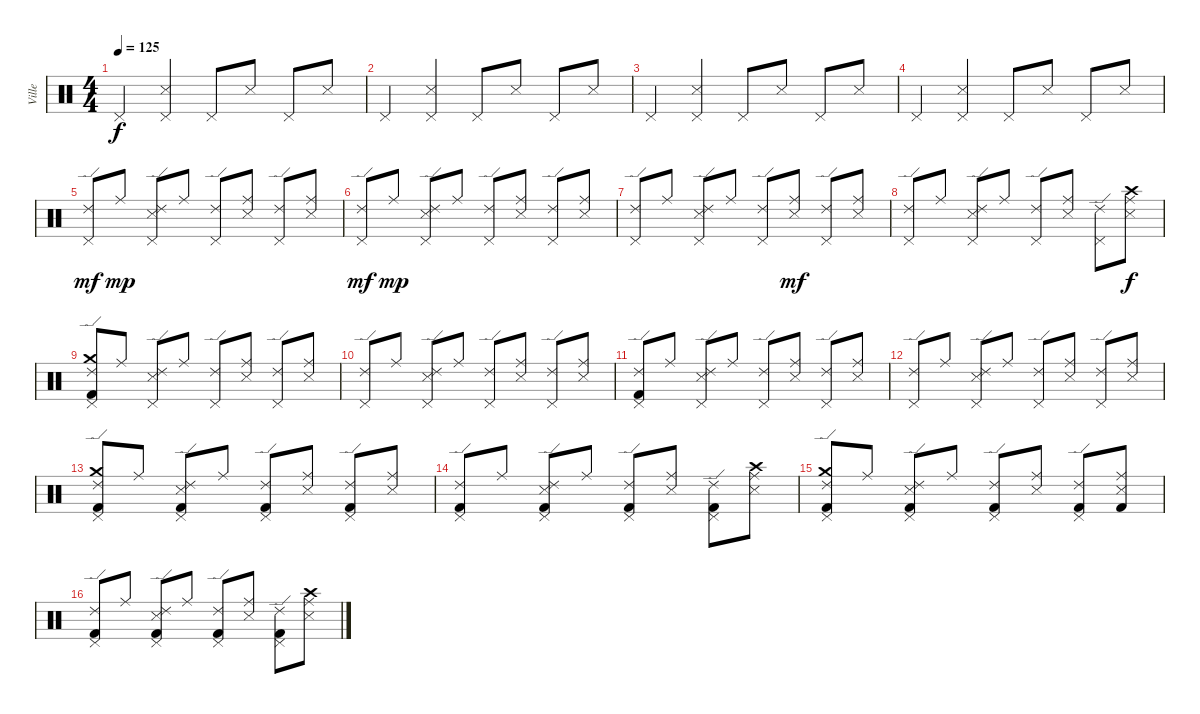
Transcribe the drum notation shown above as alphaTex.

\track ("Ville" "Ville") {instrument percussion}
\staff {score}
\articulation defaults
\ts (4 4)
\tempo 125
\clef neutral
\ks c "Pedal Hi-Hat (hit)".4{dy f}
("Snare (side stick) 3" "Pedal Hi-Hat (hit)").4 "Pedal Hi-Hat (hit)".8 "Snare (side stick) 3".8 "Pedal Hi-Hat (hit)".8 "Snare (side stick) 3".8 |
"Pedal Hi-Hat (hit)".4 ("Snare (side stick) 3" "Pedal Hi-Hat (hit)").4 "Pedal Hi-Hat (hit)".8 "Snare (side stick) 3".8 "Pedal Hi-Hat (hit)".8 "Snare (side stick) 3".8 |
"Pedal Hi-Hat (hit)".4 ("Snare (side stick) 3" "Pedal Hi-Hat (hit)").4 "Pedal Hi-Hat (hit)".8 "Snare (side stick) 3".8 "Pedal Hi-Hat (hit)".8 "Snare (side stick) 3".8 |
"Pedal Hi-Hat (hit)".4 ("Snare (side stick) 3" "Pedal Hi-Hat (hit)").4 "Pedal Hi-Hat (hit)".8 "Snare (side stick) 3".8 "Pedal Hi-Hat (hit)".8 "Snare (side stick) 3".8 |
("Pedal Hi-Hat (hit)" "Ride (edge) 2").8{dy mf} "Ride (middle)".8{dy mp} ("Snare (side stick) 3" "Pedal Hi-Hat (hit)" "Ride (edge) 2").8 "Ride (middle)".8 ("Pedal Hi-Hat (hit)" "Ride (edge) 2").8 ("Snare (side stick) 3" "Ride (middle)").8 ("Pedal Hi-Hat (hit)" "Ride (edge) 2").8 ("Snare (side stick) 3" "Ride (middle)").8 |
("Pedal Hi-Hat (hit)" "Ride (edge) 2").8{dy mf} "Ride (middle)".8{dy mp} ("Snare (side stick) 3" "Pedal Hi-Hat (hit)" "Ride (edge) 2").8 "Ride (middle)".8 ("Pedal Hi-Hat (hit)" "Ride (edge) 2").8 ("Snare (side stick) 3" "Ride (middle)").8 ("Pedal Hi-Hat (hit)" "Ride (edge) 2").8 ("Snare (side stick) 3" "Ride (middle)").8 |
("Pedal Hi-Hat (hit)" "Ride (edge) 2").8 "Ride (middle)".8 ("Snare (side stick) 3" "Pedal Hi-Hat (hit)" "Ride (edge) 2").8 "Ride (middle)".8 ("Pedal Hi-Hat (hit)" "Ride (edge) 2").8 ("Snare (side stick) 3" "Ride (middle)").8{dy mf} ("Pedal Hi-Hat (hit)" "Ride (edge) 2").8 ("Snare (side stick) 3" "Ride (middle)").8 |
("Pedal Hi-Hat (hit)" "Ride (edge) 2").8 "Ride (middle)".8 ("Snare (side stick) 3" "Pedal Hi-Hat (hit)" "Ride (edge) 2").8 "Ride (middle)".8 ("Pedal Hi-Hat (hit)" "Ride (edge) 2").8 ("Snare (side stick) 3" "Ride (middle)").8 ("Pedal Hi-Hat (hit)" "Ride (edge) 2").8 ("Snare (side stick) 3" "Crash high (hit)" "Ride (middle)").8{dy f} |
("Crash medium (hit)" "Pedal Hi-Hat (hit)" "Ride (edge) 2" "Kick (hit) 2").8 "Ride (middle)".8 ("Snare (side stick) 3" "Pedal Hi-Hat (hit)" "Ride (edge) 2").8 "Ride (middle)".8 ("Pedal Hi-Hat (hit)" "Ride (edge) 2").8 ("Snare (side stick) 3" "Ride (middle)").8 ("Pedal Hi-Hat (hit)" "Ride (edge) 2").8 ("Snare (side stick) 3" "Ride (middle)").8 |
("Pedal Hi-Hat (hit)" "Ride (edge) 2").8 "Ride (middle)".8 ("Snare (side stick) 3" "Pedal Hi-Hat (hit)" "Ride (edge) 2").8 "Ride (middle)".8 ("Pedal Hi-Hat (hit)" "Ride (edge) 2").8 ("Snare (side stick) 3" "Ride (middle)").8 ("Pedal Hi-Hat (hit)" "Ride (edge) 2").8 ("Snare (side stick) 3" "Ride (middle)").8 |
("Pedal Hi-Hat (hit)" "Ride (edge) 2" "Kick (hit) 2").8 "Ride (middle)".8 ("Snare (side stick) 3" "Pedal Hi-Hat (hit)" "Ride (edge) 2").8 "Ride (middle)".8 ("Pedal Hi-Hat (hit)" "Ride (edge) 2").8 ("Snare (side stick) 3" "Ride (middle)").8 ("Pedal Hi-Hat (hit)" "Ride (edge) 2").8 ("Snare (side stick) 3" "Ride (middle)").8 |
("Pedal Hi-Hat (hit)" "Ride (edge) 2").8 "Ride (middle)".8 ("Snare (side stick) 3" "Pedal Hi-Hat (hit)" "Ride (edge) 2").8 "Ride (middle)".8 ("Pedal Hi-Hat (hit)" "Ride (edge) 2").8 ("Snare (side stick) 3" "Ride (middle)").8 ("Pedal Hi-Hat (hit)" "Ride (edge) 2").8 ("Snare (side stick) 3" "Ride (middle)").8 |
("Crash medium (hit)" "Pedal Hi-Hat (hit)" "Ride (edge) 2" "Kick (hit) 2").8 "Ride (middle)".8 ("Snare (side stick) 3" "Pedal Hi-Hat (hit)" "Ride (edge) 2" "Kick (hit) 2").8 "Ride (middle)".8 ("Pedal Hi-Hat (hit)" "Ride (edge) 2" "Kick (hit) 2").8 ("Snare (side stick) 3" "Ride (middle)").8 ("Pedal Hi-Hat (hit)" "Ride (edge) 2" "Kick (hit) 2").8 ("Snare (side stick) 3" "Ride (middle)").8 |
("Pedal Hi-Hat (hit)" "Ride (edge) 2" "Kick (hit) 2").8 "Ride (middle)".8 ("Snare (side stick) 3" "Pedal Hi-Hat (hit)" "Ride (edge) 2" "Kick (hit) 2").8 "Ride (middle)".8 ("Pedal Hi-Hat (hit)" "Ride (edge) 2" "Kick (hit) 2").8 ("Snare (side stick) 3" "Ride (middle)").8 ("Pedal Hi-Hat (hit)" "Ride (edge) 2" "Kick (hit) 2").8 ("Crash high (hit)" "Snare (side stick) 3" "Ride (middle)").8 |
("Crash medium (hit)" "Pedal Hi-Hat (hit)" "Ride (edge) 2" "Kick (hit) 2").8 "Ride (middle)".8 ("Snare (side stick) 3" "Pedal Hi-Hat (hit)" "Ride (edge) 2" "Kick (hit) 2").8 "Ride (middle)".8 ("Pedal Hi-Hat (hit)" "Ride (edge) 2" "Kick (hit) 2").8 ("Snare (side stick) 3" "Ride (middle)").8 ("Pedal Hi-Hat (hit)" "Ride (edge) 2" "Kick (hit) 2").8 ("Snare (side stick) 3" "Ride (middle)" "Kick (hit) 2").8 |
("Pedal Hi-Hat (hit)" "Ride (edge) 2" "Kick (hit) 2").8 "Ride (middle)".8 ("Snare (side stick) 3" "Pedal Hi-Hat (hit)" "Ride (edge) 2" "Kick (hit) 2").8 "Ride (middle)".8 ("Pedal Hi-Hat (hit)" "Ride (edge) 2" "Kick (hit) 2").8 ("Snare (side stick) 3" "Ride (middle)").8 ("Pedal Hi-Hat (hit)" "Ride (edge) 2" "Kick (hit) 2").8 ("Crash high (hit)" "Snare (side stick) 3" "Ride (middle)").8
